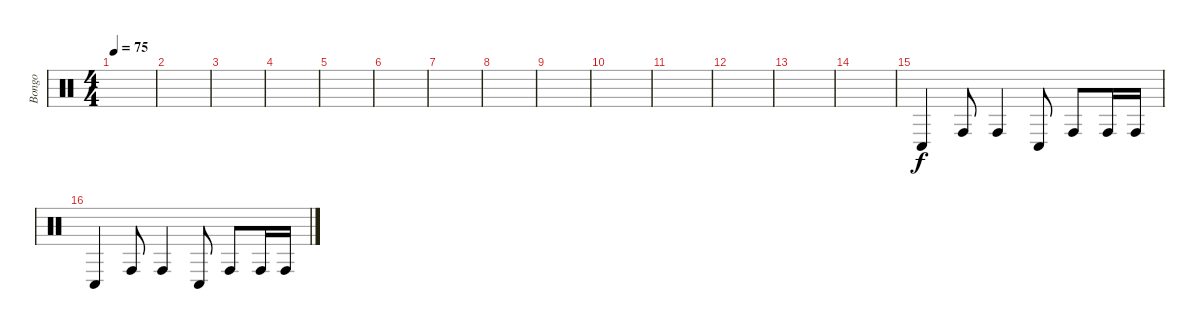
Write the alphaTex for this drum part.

\track ("Bongo" "Bongo") {instrument percussion}
\staff {score}
\articulation defaults
\ts (4 4)
\tempo 75
\clef neutral
\ks c
|
|
|
|
|
|
|
|
|
|
|
|
|
|
"Conga low (hit)".4 "Conga high (hit)".8 "Conga high (hit)".4 "Conga low (hit)".8 "Conga high (hit)".8 "Conga high (hit)".16 "Conga high (hit)".16 |
"Conga low (hit)".4 "Conga high (hit)".8 "Conga high (hit)".4 "Conga low (hit)".8 "Conga high (hit)".8 "Conga high (hit)".16 "Conga high (hit)".16
